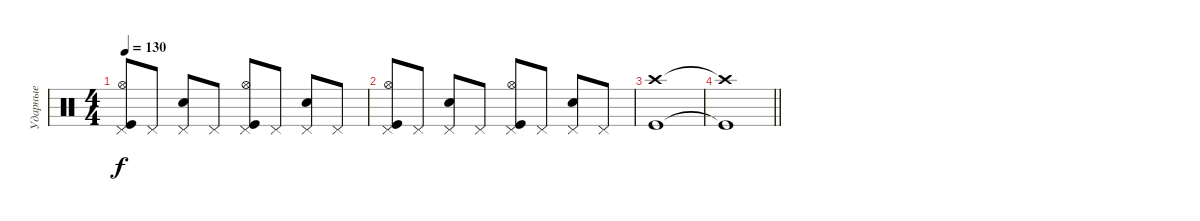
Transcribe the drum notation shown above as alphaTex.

\track ("Ударные" "Ударные") {instrument percussion}
\staff {score}
\articulation defaults
\ts (4 4)
\tempo 130
\clef neutral
\ks c
("Pedal Hi-Hat (hit)" "Hi-Hat (open)" "Kick (hit)").8{dy f} "Pedal Hi-Hat (hit)".8 ("Pedal Hi-Hat (hit)" "Snare (hit) 2").8 "Pedal Hi-Hat (hit)".8 ("Pedal Hi-Hat (hit)" "Hi-Hat (open)" "Kick (hit)").8 "Pedal Hi-Hat (hit)".8 ("Pedal Hi-Hat (hit)" "Snare (hit) 2").8 "Pedal Hi-Hat (hit)".8 |
("Pedal Hi-Hat (hit)" "Hi-Hat (open)" "Kick (hit)").8 "Pedal Hi-Hat (hit)".8 ("Pedal Hi-Hat (hit)" "Snare (hit) 2").8 "Pedal Hi-Hat (hit)".8 ("Pedal Hi-Hat (hit)" "Hi-Hat (open)" "Kick (hit)").8 "Pedal Hi-Hat (hit)".8 ("Pedal Hi-Hat (hit)" "Snare (hit) 2").8 "Pedal Hi-Hat (hit)".8 |
("Kick (hit)" "Crash high (hit)").1 |
\barLineRight lightlight
("Kick (hit)"{t} "Crash high (hit)"{t}).1
